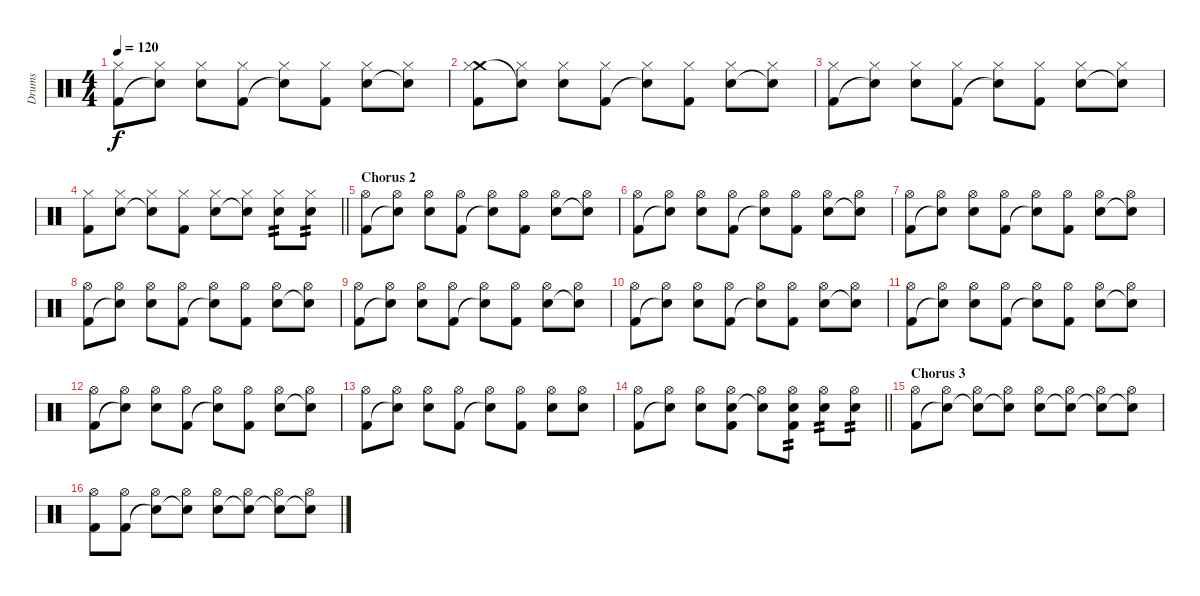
\track ("Drums" "Drums") {instrument percussion}
\staff {score}
\articulation defaults
\ts (4 4)
\tempo 120
\clef neutral
\ks c
("Hi-Hat (closed)" "Kick (hit) 2").8{dy f} ("Hi-Hat (closed)" "Snare (hit)"{t}).8 ("Hi-Hat (closed)" "Electric Snare (hit)").8 ("Hi-Hat (closed)" "Kick (hit) 2").8 ("Hi-Hat (closed)" "Snare (hit)"{t}).8 ("Hi-Hat (closed)" "Kick (hit) 2").8 ("Hi-Hat (closed)" "Electric Snare (hit)").8 ("Hi-Hat (closed)" "Snare (hit)"{t}).8 |
("Crash medium (hit)" "Hi-Hat (closed)" "Kick (hit) 2").8 ("Hi-Hat (closed)" "Snare (hit)"{t}).8 ("Hi-Hat (closed)" "Electric Snare (hit)").8 ("Hi-Hat (closed)" "Kick (hit) 2").8 ("Hi-Hat (closed)" "Snare (hit)"{t}).8 ("Hi-Hat (closed)" "Kick (hit) 2").8 ("Hi-Hat (closed)" "Electric Snare (hit)").8 ("Hi-Hat (closed)" "Snare (hit)"{t}).8 |
("Hi-Hat (closed)" "Kick (hit) 2").8 ("Hi-Hat (closed)" "Snare (hit)"{t}).8 ("Hi-Hat (closed)" "Electric Snare (hit)").8 ("Hi-Hat (closed)" "Kick (hit) 2").8 ("Hi-Hat (closed)" "Snare (hit)"{t}).8 ("Hi-Hat (closed)" "Kick (hit) 2").8 ("Hi-Hat (closed)" "Electric Snare (hit)").8 ("Hi-Hat (closed)" "Snare (hit)"{t}).8 |
\barLineRight lightlight
("Hi-Hat (closed)" "Kick (hit) 2").8 ("Hi-Hat (closed)" "Electric Snare (hit)").8 ("Hi-Hat (closed)" "Snare (hit)"{t}).8 ("Hi-Hat (closed)" "Kick (hit) 2").8 ("Hi-Hat (closed)" "Electric Snare (hit)").8 ("Hi-Hat (closed)" "Snare (hit)"{t}).8 ("Hi-Hat (closed)" "Electric Snare (hit)").8{tp 2} ("Hi-Hat (closed)" "Electric Snare (hit)").8{tp 2} |
\section ("" "Chorus 2")
("Hi-Hat (open)" "Kick (hit) 2").8 ("Hi-Hat (open)" "Snare (hit)"{t}).8 ("Hi-Hat (open)" "Electric Snare (hit)").8 ("Hi-Hat (open)" "Kick (hit) 2").8 ("Hi-Hat (open)" "Snare (hit)"{t}).8 ("Hi-Hat (open)" "Kick (hit) 2").8 ("Hi-Hat (open)" "Electric Snare (hit)").8 ("Hi-Hat (open)" "Snare (hit)"{t}).8 |
("Hi-Hat (open)" "Kick (hit) 2").8 ("Hi-Hat (open)" "Snare (hit)"{t}).8 ("Hi-Hat (open)" "Electric Snare (hit)").8 ("Hi-Hat (open)" "Kick (hit) 2").8 ("Hi-Hat (open)" "Snare (hit)"{t}).8 ("Hi-Hat (open)" "Kick (hit) 2").8 ("Hi-Hat (open)" "Electric Snare (hit)").8 ("Hi-Hat (open)" "Snare (hit)"{t}).8 |
("Hi-Hat (open)" "Kick (hit) 2").8 ("Hi-Hat (open)" "Snare (hit)"{t}).8 ("Hi-Hat (open)" "Electric Snare (hit)").8 ("Hi-Hat (open)" "Kick (hit) 2").8 ("Hi-Hat (open)" "Snare (hit)"{t}).8 ("Hi-Hat (open)" "Kick (hit) 2").8 ("Hi-Hat (open)" "Electric Snare (hit)").8 ("Hi-Hat (open)" "Snare (hit)"{t}).8 |
("Hi-Hat (open)" "Kick (hit) 2").8 ("Hi-Hat (open)" "Snare (hit)"{t}).8 ("Hi-Hat (open)" "Electric Snare (hit)").8 ("Hi-Hat (open)" "Kick (hit) 2").8 ("Hi-Hat (open)" "Snare (hit)"{t}).8 ("Hi-Hat (open)" "Kick (hit) 2").8 ("Hi-Hat (open)" "Electric Snare (hit)").8 ("Hi-Hat (open)" "Snare (hit)"{t}).8 |
("Hi-Hat (open)" "Kick (hit) 2").8 ("Hi-Hat (open)" "Snare (hit)"{t}).8 ("Hi-Hat (open)" "Electric Snare (hit)").8 ("Hi-Hat (open)" "Kick (hit) 2").8 ("Hi-Hat (open)" "Snare (hit)"{t}).8 ("Hi-Hat (open)" "Kick (hit) 2").8 ("Hi-Hat (open)" "Electric Snare (hit)").8 ("Hi-Hat (open)" "Snare (hit)"{t}).8 |
("Hi-Hat (open)" "Kick (hit) 2").8 ("Hi-Hat (open)" "Snare (hit)"{t}).8 ("Hi-Hat (open)" "Electric Snare (hit)").8 ("Hi-Hat (open)" "Kick (hit) 2").8 ("Hi-Hat (open)" "Snare (hit)"{t}).8 ("Hi-Hat (open)" "Kick (hit) 2").8 ("Hi-Hat (open)" "Electric Snare (hit)").8 ("Hi-Hat (open)" "Snare (hit)"{t}).8 |
("Hi-Hat (open)" "Kick (hit) 2").8 ("Hi-Hat (open)" "Snare (hit)"{t}).8 ("Hi-Hat (open)" "Electric Snare (hit)").8 ("Hi-Hat (open)" "Kick (hit) 2").8 ("Hi-Hat (open)" "Snare (hit)"{t}).8 ("Hi-Hat (open)" "Kick (hit) 2").8 ("Hi-Hat (open)" "Electric Snare (hit)").8 ("Hi-Hat (open)" "Snare (hit)"{t}).8 |
("Hi-Hat (open)" "Kick (hit) 2").8 ("Hi-Hat (open)" "Snare (hit)"{t}).8 ("Hi-Hat (open)" "Electric Snare (hit)").8 ("Hi-Hat (open)" "Kick (hit) 2").8 ("Hi-Hat (open)" "Snare (hit)"{t}).8 ("Hi-Hat (open)" "Kick (hit) 2").8 ("Hi-Hat (open)" "Electric Snare (hit)").8 ("Hi-Hat (open)" "Snare (hit)"{t}).8 |
("Hi-Hat (open)" "Kick (hit) 2").8 ("Hi-Hat (open)" "Snare (hit)"{t}).8 ("Hi-Hat (open)" "Electric Snare (hit)").8 ("Hi-Hat (open)" "Kick (hit) 2").8 ("Hi-Hat (open)" "Snare (hit)"{t}).8 ("Hi-Hat (open)" "Kick (hit) 2").8 ("Hi-Hat (open)" "Electric Snare (hit)").8 ("Hi-Hat (open)" "Electric Snare (hit)").8 |
\barLineRight lightlight
("Hi-Hat (open)" "Kick (hit) 2").8 ("Hi-Hat (open)" "Snare (hit)"{t}).8 ("Hi-Hat (open)" "Electric Snare (hit)").8 ("Hi-Hat (open)" "Electric Snare (hit)" "Kick (hit) 2").8 ("Hi-Hat (open)" "Snare (hit)"{t}).8 ("Hi-Hat (open)" "Electric Snare (hit)" "Kick (hit) 2").8{tp 2} ("Hi-Hat (open)" "Electric Snare (hit)").8{tp 2} ("Hi-Hat (open)" "Electric Snare (hit)").8{tp 2} |
\section ("" "Chorus 3")
("Hi-Hat (open)" "Kick (hit) 2").8 ("Hi-Hat (open)" "Snare (hit)"{t}).8 ("Hi-Hat (open)" "Snare (hit)"{t}).8 ("Hi-Hat (open)" "Snare (hit)"{t}).8 ("Hi-Hat (open)" "Electric Snare (hit)").8 ("Hi-Hat (open)" "Snare (hit)"{t}).8 ("Hi-Hat (open)" "Snare (hit)"{t}).8 ("Hi-Hat (open)" "Snare (hit)"{t}).8 |
("Hi-Hat (open)" "Kick (hit) 2").8 ("Hi-Hat (open)" "Kick (hit) 2").8 ("Hi-Hat (open)" "Snare (hit)"{t}).8 ("Hi-Hat (open)" "Snare (hit)"{t}).8 ("Hi-Hat (open)" "Electric Snare (hit)").8 ("Hi-Hat (open)" "Snare (hit)"{t}).8 ("Hi-Hat (open)" "Snare (hit)"{t}).8 ("Hi-Hat (open)" "Snare (hit)"{t}).8
